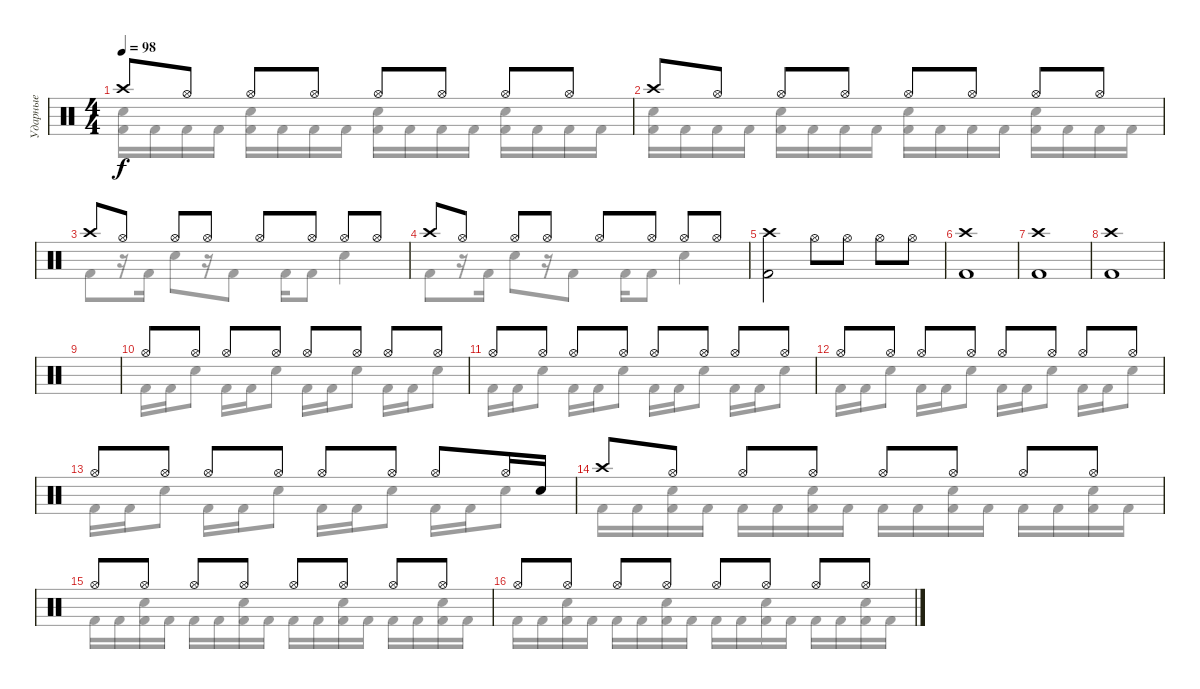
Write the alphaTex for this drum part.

\track ("Ударные" "Ударные") {instrument percussion}
\staff {score}
\articulation defaults
\voice
\ts (4 4)
\tempo 98
\clef neutral
\ks c "Crash high (hit)".8{dy f} "Hi-Hat (open)".8 "Hi-Hat (open)".8 "Hi-Hat (open)".8 "Hi-Hat (open)".8 "Hi-Hat (open)".8 "Hi-Hat (open)".8 "Hi-Hat (open)".8
|
"Crash high (hit)".8 "Hi-Hat (open)".8 "Hi-Hat (open)".8 "Hi-Hat (open)".8 "Hi-Hat (open)".8 "Hi-Hat (open)".8 "Hi-Hat (open)".8 "Hi-Hat (open)".8 |
"Crash high (hit)".8 "Hi-Hat (open)".8 "Hi-Hat (open)".8 "Hi-Hat (open)".8 "Hi-Hat (open)".8 "Hi-Hat (open)".8 "Hi-Hat (open)".8 "Hi-Hat (open)".8 |
"Crash high (hit)".8 "Hi-Hat (open)".8 "Hi-Hat (open)".8 "Hi-Hat (open)".8 "Hi-Hat (open)".8 "Hi-Hat (open)".8 "Hi-Hat (open)".8 "Hi-Hat (open)".8 |
("Crash high (hit)" "Kick (hit) 2").2 "Hi-Hat (open)".8 "Hi-Hat (open)".8 "Hi-Hat (open)".8 "Hi-Hat (open)".8 |
("Crash high (hit)" "Kick (hit) 2").1 |
("Crash high (hit)" "Kick (hit) 2").1 |
("Crash high (hit)" "Kick (hit) 2").1 |
|
"Hi-Hat (open)".8 "Hi-Hat (open)".8 "Hi-Hat (open)".8 "Hi-Hat (open)".8 "Hi-Hat (open)".8 "Hi-Hat (open)".8 "Hi-Hat (open)".8 "Hi-Hat (open)".8 |
"Hi-Hat (open)".8 "Hi-Hat (open)".8 "Hi-Hat (open)".8 "Hi-Hat (open)".8 "Hi-Hat (open)".8 "Hi-Hat (open)".8 "Hi-Hat (open)".8 "Hi-Hat (open)".8 |
"Hi-Hat (open)".8 "Hi-Hat (open)".8 "Hi-Hat (open)".8 "Hi-Hat (open)".8 "Hi-Hat (open)".8 "Hi-Hat (open)".8 "Hi-Hat (open)".8 "Hi-Hat (open)".8 |
"Hi-Hat (open)".8 "Hi-Hat (open)".8 "Hi-Hat (open)".8 "Hi-Hat (open)".8 "Hi-Hat (open)".8 "Hi-Hat (open)".8 "Hi-Hat (open)".8 "Hi-Hat (open)".16 "Snare (hit) 2".16 |
"Crash high (hit)".8 "Hi-Hat (open)".8 "Hi-Hat (open)".8 "Hi-Hat (open)".8 "Hi-Hat (open)".8 "Hi-Hat (open)".8 "Hi-Hat (open)".8 "Hi-Hat (open)".8 |
"Hi-Hat (open)".8 "Hi-Hat (open)".8 "Hi-Hat (open)".8 "Hi-Hat (open)".8 "Hi-Hat (open)".8 "Hi-Hat (open)".8 "Hi-Hat (open)".8 "Hi-Hat (open)".8 |
"Hi-Hat (open)".8 "Hi-Hat (open)".8 "Hi-Hat (open)".8 "Hi-Hat (open)".8 "Hi-Hat (open)".8 "Hi-Hat (open)".8 "Hi-Hat (open)".8 "Hi-Hat (open)".8
\voice
\clef neutral
\ottava regular
\simile none
\ks c
("Snare (hit) 2" "Kick (hit) 2").16{dy f} "Kick (hit) 2".16 "Kick (hit) 2".16 "Kick (hit) 2".16 ("Snare (hit) 2" "Kick (hit) 2").16 "Kick (hit) 2".16 "Kick (hit) 2".16 "Kick (hit) 2".16 ("Snare (hit) 2" "Kick (hit) 2").16 "Kick (hit) 2".16 "Kick (hit) 2".16 "Kick (hit) 2".16 ("Snare (hit) 2" "Kick (hit) 2").16 "Kick (hit) 2".16 "Kick (hit) 2".16 "Kick (hit) 2".16 |
("Snare (hit) 2" "Kick (hit) 2").16 "Kick (hit) 2".16 "Kick (hit) 2".16 "Kick (hit) 2".16 ("Snare (hit) 2" "Kick (hit) 2").16 "Kick (hit) 2".16 "Kick (hit) 2".16 "Kick (hit) 2".16 ("Snare (hit) 2" "Kick (hit) 2").16 "Kick (hit) 2".16 "Kick (hit) 2".16 "Kick (hit) 2".16 ("Snare (hit) 2" "Kick (hit) 2").16 "Kick (hit) 2".16 "Kick (hit) 2".16 "Kick (hit) 2".16 |
"Kick (hit) 2".8 r.16 "Kick (hit) 2".16 "Snare (hit) 2".8 r.16 "Kick (hit) 2".8 "Kick (hit) 2".16 "Kick (hit) 2".8 "Snare (hit) 2".4 |
"Kick (hit) 2".8 r.16 "Kick (hit) 2".16 "Snare (hit) 2".8 r.16 "Kick (hit) 2".8 "Kick (hit) 2".16 "Kick (hit) 2".8 "Snare (hit) 2".4 |
|
|
|
|
|
"Kick (hit) 2".16 "Kick (hit) 2".16 "Snare (hit) 2".8 "Kick (hit) 2".16 "Kick (hit) 2".16 "Snare (hit) 2".8 "Kick (hit) 2".16 "Kick (hit) 2".16 "Snare (hit) 2".8 "Kick (hit) 2".16 "Kick (hit) 2".16 "Snare (hit) 2".8 |
"Kick (hit) 2".16 "Kick (hit) 2".16 "Snare (hit) 2".8 "Kick (hit) 2".16 "Kick (hit) 2".16 "Snare (hit) 2".8 "Kick (hit) 2".16 "Kick (hit) 2".16 "Snare (hit) 2".8 "Kick (hit) 2".16 "Kick (hit) 2".16 "Snare (hit) 2".8 |
"Kick (hit) 2".16 "Kick (hit) 2".16 "Snare (hit) 2".8 "Kick (hit) 2".16 "Kick (hit) 2".16 "Snare (hit) 2".8 "Kick (hit) 2".16 "Kick (hit) 2".16 "Snare (hit) 2".8 "Kick (hit) 2".16 "Kick (hit) 2".16 "Snare (hit) 2".8 |
"Kick (hit) 2".16 "Kick (hit) 2".16 "Snare (hit) 2".8 "Kick (hit) 2".16 "Kick (hit) 2".16 "Snare (hit) 2".8 "Kick (hit) 2".16 "Kick (hit) 2".16 "Snare (hit) 2".8 "Kick (hit) 2".16 "Kick (hit) 2".16 "Snare (hit) 2".8 |
"Kick (hit) 2".16 "Kick (hit) 2".16 ("Snare (hit) 2" "Kick (hit) 2").16 "Kick (hit) 2".16 "Kick (hit) 2".16 "Kick (hit) 2".16 ("Snare (hit) 2" "Kick (hit) 2").16 "Kick (hit) 2".16 "Kick (hit) 2".16 "Kick (hit) 2".16 ("Snare (hit) 2" "Kick (hit) 2").16 "Kick (hit) 2".16 "Kick (hit) 2".16 "Kick (hit) 2".16 ("Snare (hit) 2" "Kick (hit) 2").16 "Kick (hit) 2".16 |
"Kick (hit) 2".16 "Kick (hit) 2".16 ("Snare (hit) 2" "Kick (hit) 2").16 "Kick (hit) 2".16 "Kick (hit) 2".16 "Kick (hit) 2".16 ("Snare (hit) 2" "Kick (hit) 2").16 "Kick (hit) 2".16 "Kick (hit) 2".16 "Kick (hit) 2".16 ("Snare (hit) 2" "Kick (hit) 2").16 "Kick (hit) 2".16 "Kick (hit) 2".16 "Kick (hit) 2".16 ("Snare (hit) 2" "Kick (hit) 2").16 "Kick (hit) 2".16 |
"Kick (hit) 2".16 "Kick (hit) 2".16 ("Snare (hit) 2" "Kick (hit) 2").16 "Kick (hit) 2".16 "Kick (hit) 2".16 "Kick (hit) 2".16 ("Snare (hit) 2" "Kick (hit) 2").16 "Kick (hit) 2".16 "Kick (hit) 2".16 "Kick (hit) 2".16 ("Snare (hit) 2" "Kick (hit) 2").16 "Kick (hit) 2".16 "Kick (hit) 2".16 "Kick (hit) 2".16 ("Snare (hit) 2" "Kick (hit) 2").16 "Kick (hit) 2".16
